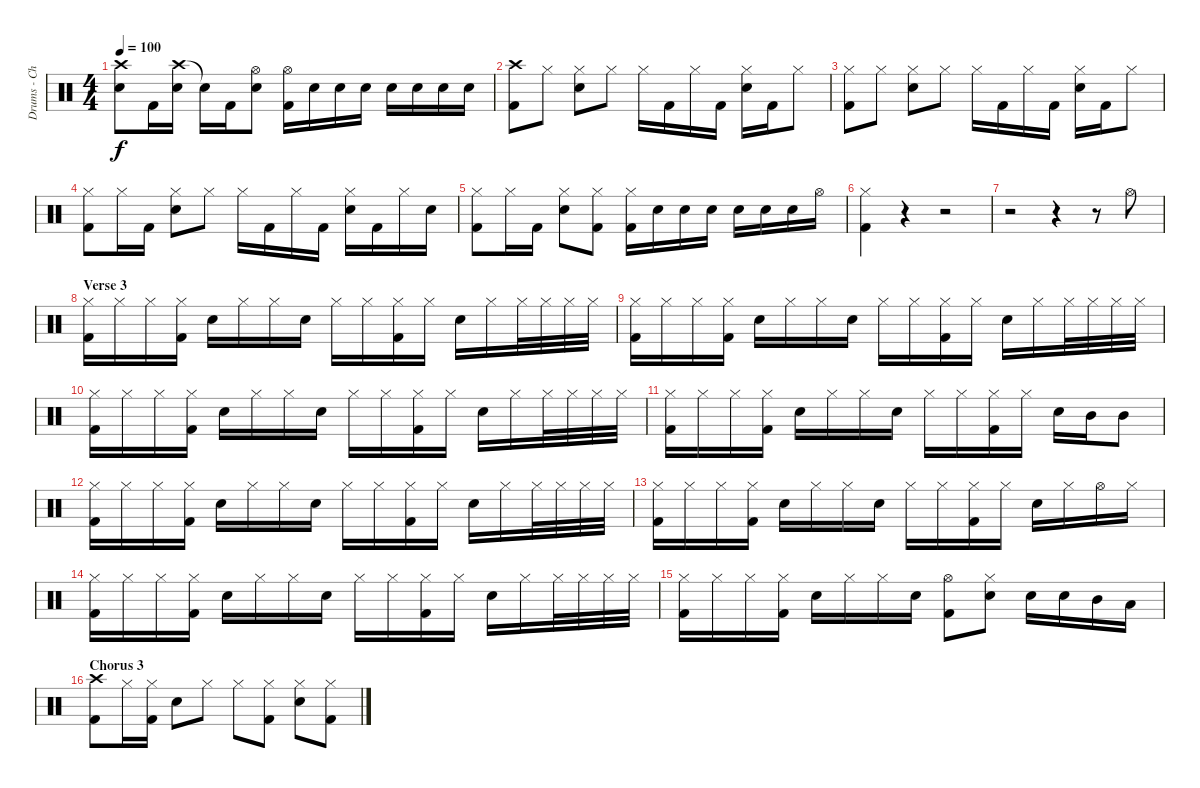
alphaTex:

\track ("Drums - Chad" "Drums - Ch") {instrument percussion}
\staff {score}
\articulation defaults
\ts (4 4)
\tempo 100
\clef neutral
\ks c
("Crash high (hit)" "Electric Snare (hit)").8{dy f} "Kick (hit) 2".16 ("Crash high (hit)" "Electric Snare (hit)").16 "Snare (hit)"{t}.16 "Kick (hit) 2".16 ("Hi-Hat (open)" "Electric Snare (hit)").8 ("Hi-Hat (open)" "Kick (hit) 2").16 "Electric Snare (hit)".16 "Electric Snare (hit)".16 "Electric Snare (hit)".16 "Electric Snare (hit)".16 "Electric Snare (hit)".16 "Electric Snare (hit)".16 "Electric Snare (hit)".16 |
("Crash high (hit)" "Kick (hit) 2").8 "Hi-Hat (closed)".8 ("Hi-Hat (closed)" "Electric Snare (hit)").8 "Hi-Hat (closed)".8 "Hi-Hat (closed)".16 "Kick (hit) 2".16 "Hi-Hat (closed)".16 "Kick (hit) 2".16 ("Hi-Hat (closed)" "Electric Snare (hit)").16 "Kick (hit) 2".16 "Hi-Hat (closed)".8 |
("Hi-Hat (closed)" "Kick (hit) 2").8 "Hi-Hat (closed)".8 ("Hi-Hat (closed)" "Electric Snare (hit)").8 "Hi-Hat (closed)".8 "Hi-Hat (closed)".16 "Kick (hit) 2".16 "Hi-Hat (closed)".16 "Kick (hit) 2".16 ("Hi-Hat (closed)" "Electric Snare (hit)").16 "Kick (hit) 2".16 "Hi-Hat (closed)".8 |
("Hi-Hat (closed)" "Kick (hit) 2").8 "Hi-Hat (closed)".16 "Kick (hit) 2".16 ("Hi-Hat (closed)" "Electric Snare (hit)").8 "Hi-Hat (closed)".8 "Hi-Hat (closed)".16 "Kick (hit) 2".16 "Hi-Hat (closed)".16 "Kick (hit) 2".16 ("Hi-Hat (closed)" "Electric Snare (hit)").16 "Kick (hit) 2".16 "Hi-Hat (closed)".16 "Electric Snare (hit)".16 |
("Hi-Hat (closed)" "Kick (hit) 2").8 "Hi-Hat (closed)".16 "Kick (hit) 2".16 ("Hi-Hat (closed)" "Electric Snare (hit)").8 ("Hi-Hat (closed)" "Kick (hit) 2").8 ("Hi-Hat (closed)" "Kick (hit) 2").16 "Electric Snare (hit)".16 "Electric Snare (hit)".16 "Electric Snare (hit)".16 "Electric Snare (hit)".16 "Electric Snare (hit)".16 "Electric Snare (hit)".16 "Hi-Hat (open)".16 |
("Hi-Hat (closed)" "Kick (hit) 2").4 r.4 r.2 |
r.2 r.4 r.8 "Hi-Hat (open)".8 |
\section ("" "Verse 3")
("Hi-Hat (closed)" "Kick (hit) 2").16 "Hi-Hat (closed)".16 "Hi-Hat (closed)".16 ("Hi-Hat (closed)" "Kick (hit) 2").16 "Electric Snare (hit)".16 "Hi-Hat (closed)".16 "Hi-Hat (closed)".16 "Electric Snare (hit)".16 "Hi-Hat (closed)".16 "Hi-Hat (closed)".16 ("Hi-Hat (closed)" "Kick (hit) 2").16 "Hi-Hat (closed)".16 "Electric Snare (hit)".16 "Hi-Hat (closed)".16 "Hi-Hat (closed)".32 "Hi-Hat (closed)".32 "Hi-Hat (closed)".32 "Hi-Hat (closed)".32 |
("Hi-Hat (closed)" "Kick (hit) 2").16 "Hi-Hat (closed)".16 "Hi-Hat (closed)".16 ("Hi-Hat (closed)" "Kick (hit) 2").16 "Electric Snare (hit)".16 "Hi-Hat (closed)".16 "Hi-Hat (closed)".16 "Electric Snare (hit)".16 "Hi-Hat (closed)".16 "Hi-Hat (closed)".16 ("Hi-Hat (closed)" "Kick (hit) 2").16 "Hi-Hat (closed)".16 "Electric Snare (hit)".16 "Hi-Hat (closed)".16 "Hi-Hat (closed)".32 "Hi-Hat (closed)".32 "Hi-Hat (closed)".32 "Hi-Hat (closed)".32 |
("Hi-Hat (closed)" "Kick (hit) 2").16 "Hi-Hat (closed)".16 "Hi-Hat (closed)".16 ("Hi-Hat (closed)" "Kick (hit) 2").16 "Electric Snare (hit)".16 "Hi-Hat (closed)".16 "Hi-Hat (closed)".16 "Electric Snare (hit)".16 "Hi-Hat (closed)".16 "Hi-Hat (closed)".16 ("Hi-Hat (closed)" "Kick (hit) 2").16 "Hi-Hat (closed)".16 "Electric Snare (hit)".16 "Hi-Hat (closed)".16 "Hi-Hat (closed)".32 "Hi-Hat (closed)".32 "Hi-Hat (closed)".32 "Hi-Hat (closed)".32 |
("Hi-Hat (closed)" "Kick (hit) 2").16 "Hi-Hat (closed)".16 "Hi-Hat (closed)".16 ("Hi-Hat (closed)" "Kick (hit) 2").16 "Electric Snare (hit)".16 "Hi-Hat (closed)".16 "Hi-Hat (closed)".16 "Electric Snare (hit)".16 "Hi-Hat (closed)".16 "Hi-Hat (closed)".16 ("Hi-Hat (closed)" "Kick (hit) 2").16 "Hi-Hat (closed)".16 "Electric Snare (hit)".16 "Mid Tom (hit)".16 "Mid Tom (hit)".8 |
("Hi-Hat (closed)" "Kick (hit) 2").16 "Hi-Hat (closed)".16 "Hi-Hat (closed)".16 ("Hi-Hat (closed)" "Kick (hit) 2").16 "Electric Snare (hit)".16 "Hi-Hat (closed)".16 "Hi-Hat (closed)".16 "Electric Snare (hit)".16 "Hi-Hat (closed)".16 "Hi-Hat (closed)".16 ("Hi-Hat (closed)" "Kick (hit) 2").16 "Hi-Hat (closed)".16 "Electric Snare (hit)".16 "Hi-Hat (closed)".16 "Hi-Hat (closed)".32 "Hi-Hat (closed)".32 "Hi-Hat (closed)".32 "Hi-Hat (closed)".32 |
("Hi-Hat (closed)" "Kick (hit) 2").16 "Hi-Hat (closed)".16 "Hi-Hat (closed)".16 ("Hi-Hat (closed)" "Kick (hit) 2").16 "Electric Snare (hit)".16 "Hi-Hat (closed)".16 "Hi-Hat (closed)".16 "Electric Snare (hit)".16 "Hi-Hat (closed)".16 "Hi-Hat (closed)".16 ("Hi-Hat (closed)" "Kick (hit) 2").16 "Hi-Hat (closed)".16 "Electric Snare (hit)".16 "Hi-Hat (closed)".16 "Hi-Hat (open)".16 "Hi-Hat (closed)".16 |
("Hi-Hat (closed)" "Kick (hit) 2").16 "Hi-Hat (closed)".16 "Hi-Hat (closed)".16 ("Hi-Hat (closed)" "Kick (hit) 2").16 "Electric Snare (hit)".16 "Hi-Hat (closed)".16 "Hi-Hat (closed)".16 "Electric Snare (hit)".16 "Hi-Hat (closed)".16 "Hi-Hat (closed)".16 ("Hi-Hat (closed)" "Kick (hit) 2").16 "Hi-Hat (closed)".16 "Electric Snare (hit)".16 "Hi-Hat (closed)".16 "Hi-Hat (closed)".32 "Hi-Hat (closed)".32 "Hi-Hat (closed)".32 "Hi-Hat (closed)".32 |
("Hi-Hat (closed)" "Kick (hit) 2").16 "Hi-Hat (closed)".16 "Hi-Hat (closed)".16 ("Hi-Hat (closed)" "Kick (hit) 2").16 "Electric Snare (hit)".16 "Hi-Hat (closed)".16 "Hi-Hat (closed)".16 "Electric Snare (hit)".16 ("Hi-Hat (open)" "Kick (hit) 2").8 ("Hi-Hat (closed)" "Electric Snare (hit)").8 "Electric Snare (hit)".16 "Electric Snare (hit)".16 "Mid Tom (hit)".16 "Low Tom (hit)".16 |
\section ("" "Chorus 3")
("Crash high (hit)" "Kick (hit) 2").8 "Hi-Hat (closed)".16 ("Hi-Hat (closed)" "Kick (hit) 2").16 "Electric Snare (hit)".8 "Hi-Hat (closed)".8 "Hi-Hat (closed)".8 ("Hi-Hat (closed)" "Kick (hit) 2").8 ("Hi-Hat (closed)" "Electric Snare (hit)").8 ("Hi-Hat (closed)" "Kick (hit) 2").8
